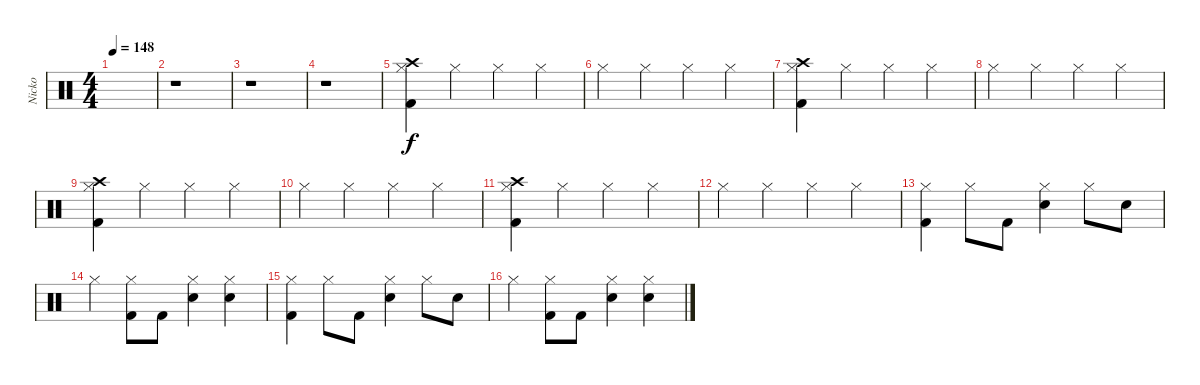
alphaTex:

\track ("Nicko" "Nicko") {instrument percussion}
\staff {score}
\articulation defaults
\ts (4 4)
\tempo 148
\clef neutral
\ks c
|
r.1 |
r.1 |
r.1 |
("Hi-Hat (closed)" "Crash high (hit)" "Kick (hit) 2").4 "Hi-Hat (closed)".4 "Hi-Hat (closed)".4 "Hi-Hat (closed)".4 |
"Hi-Hat (closed)".4 "Hi-Hat (closed)".4 "Hi-Hat (closed)".4 "Hi-Hat (closed)".4 |
("Hi-Hat (closed)" "Crash high (hit)" "Kick (hit) 2").4 "Hi-Hat (closed)".4 "Hi-Hat (closed)".4 "Hi-Hat (closed)".4 |
"Hi-Hat (closed)".4 "Hi-Hat (closed)".4 "Hi-Hat (closed)".4 "Hi-Hat (closed)".4 |
("Hi-Hat (closed)" "Crash high (hit)" "Kick (hit) 2").4 "Hi-Hat (closed)".4 "Hi-Hat (closed)".4 "Hi-Hat (closed)".4 |
"Hi-Hat (closed)".4 "Hi-Hat (closed)".4 "Hi-Hat (closed)".4 "Hi-Hat (closed)".4 |
("Hi-Hat (closed)" "Crash high (hit)" "Kick (hit) 2").4 "Hi-Hat (closed)".4 "Hi-Hat (closed)".4 "Hi-Hat (closed)".4 |
"Hi-Hat (closed)".4 "Hi-Hat (closed)".4 "Hi-Hat (closed)".4 "Hi-Hat (closed)".4 |
("Hi-Hat (closed)" "Kick (hit) 2").4 "Hi-Hat (closed)".8 "Kick (hit) 2".8 ("Hi-Hat (closed)" "Snare (hit) 2").4 "Hi-Hat (closed)".8 "Snare (hit) 2".8 |
"Hi-Hat (closed)".4 ("Hi-Hat (closed)" "Kick (hit) 2").8 "Kick (hit) 2".8 ("Hi-Hat (closed)" "Snare (hit) 2").4 ("Hi-Hat (closed)" "Snare (hit) 2").4 |
("Hi-Hat (closed)" "Kick (hit) 2").4 "Hi-Hat (closed)".8 "Kick (hit) 2".8 ("Hi-Hat (closed)" "Snare (hit) 2").4 "Hi-Hat (closed)".8 "Snare (hit) 2".8 |
"Hi-Hat (closed)".4 ("Hi-Hat (closed)" "Kick (hit) 2").8 "Kick (hit) 2".8 ("Hi-Hat (closed)" "Snare (hit) 2").4 ("Hi-Hat (closed)" "Snare (hit) 2").4
